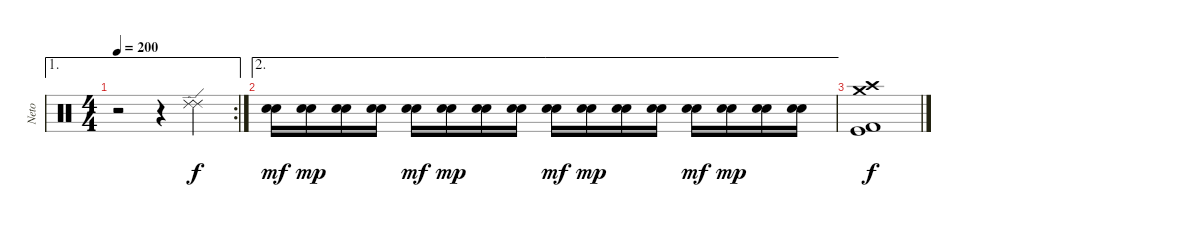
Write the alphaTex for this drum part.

\track ("Neto" "Neto") {instrument percussion}
\staff {score}
\articulation defaults
\ae 1
\rc 2
\ts (4 4)
\tempo 200
\clef neutral
\ks c
r.2{dy f} r.4 ("Ride (edge) 2" "Ride (edge) 2").4 |
\ae 2
("Snare (hit) 2" "Snare (hit) 2").16{dy mf} ("Snare (hit) 2" "Snare (hit) 2").16{dy mp} ("Snare (hit) 2" "Snare (hit) 2").16 ("Snare (hit) 2" "Snare (hit) 2").16 ("Snare (hit) 2" "Snare (hit) 2").16{dy mf} ("Snare (hit) 2" "Snare (hit) 2").16{dy mp} ("Snare (hit) 2" "Snare (hit) 2").16 ("Snare (hit) 2" "Snare (hit) 2").16 ("Snare (hit) 2" "Snare (hit) 2").16{dy mf} ("Snare (hit) 2" "Snare (hit) 2").16{dy mp} ("Snare (hit) 2" "Snare (hit) 2").16 ("Snare (hit) 2" "Snare (hit) 2").16 ("Snare (hit) 2" "Snare (hit) 2").16{dy mf} ("Snare (hit) 2" "Snare (hit) 2").16{dy mp} ("Snare (hit) 2" "Snare (hit) 2").16 ("Snare (hit) 2" "Snare (hit) 2").16 |
("Crash high (hit)" "Crash medium (hit)" "Kick (hit)" "Kick (hit) 2").1{dy f}
